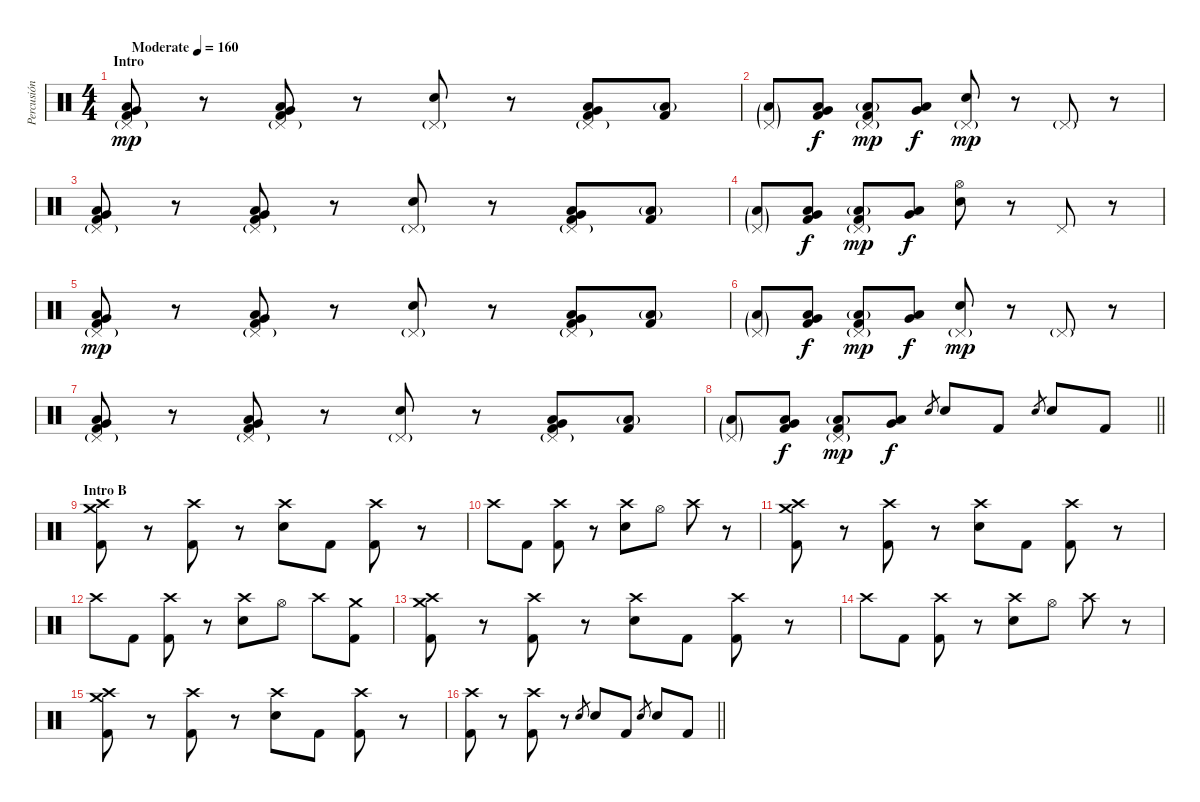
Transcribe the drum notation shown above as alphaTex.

\track ("Percusión" "Percusión") {instrument percussion}
\staff {score}
\articulation defaults
\ts (4 4)
\section ("" "Intro")
\tempo (160 "Moderate")
\clef neutral
\ks c
("Pedal Hi-Hat (hit)"{g} "Very Low Tom (hit)" "Low Tom (hit)" "Kick (hit) 2").8{dy mp} r.8 ("Pedal Hi-Hat (hit)"{g} "Very Low Tom (hit)" "Low Tom (hit)" "Kick (hit) 2").8 r.8 ("Pedal Hi-Hat (hit)"{g} "Electric Snare (hit)").8 r.8 ("Pedal Hi-Hat (hit)"{g} "Very Low Tom (hit)" "Low Tom (hit)" "Kick (hit) 2").8 ("Low Floor Tom (hit)"{g} "Kick (hit) 2").8 |
("Pedal Hi-Hat (hit)"{g} "Low Floor Tom (hit)"{g}).8 ("Very Low Tom (hit)" "Low Tom (hit)" "Kick (hit) 2").8{dy f} ("Pedal Hi-Hat (hit)"{g} "Low Floor Tom (hit)"{g} "Kick (hit) 2").8{dy mp} ("Very Low Tom (hit)" "Low Tom (hit)").8{dy f} ("Pedal Hi-Hat (hit)"{g} "Electric Snare (hit)").8{dy mp} r.8 "Pedal Hi-Hat (hit)"{g}.8 r.8 |
("Pedal Hi-Hat (hit)"{g} "Very Low Tom (hit)" "Low Tom (hit)" "Kick (hit) 2").8 r.8 ("Pedal Hi-Hat (hit)"{g} "Very Low Tom (hit)" "Low Tom (hit)" "Kick (hit) 2").8 r.8 ("Pedal Hi-Hat (hit)"{g} "Electric Snare (hit)").8 r.8 ("Pedal Hi-Hat (hit)"{g} "Very Low Tom (hit)" "Low Tom (hit)" "Kick (hit) 2").8 ("Low Floor Tom (hit)"{g} "Kick (hit) 2").8 |
("Pedal Hi-Hat (hit)"{g} "Low Floor Tom (hit)"{g}).8 ("Very Low Tom (hit)" "Low Tom (hit)" "Kick (hit) 2").8{dy f} ("Pedal Hi-Hat (hit)"{g} "Low Floor Tom (hit)"{g} "Kick (hit) 2").8{dy mp} ("Very Low Tom (hit)" "Low Tom (hit)").8{dy f} ("Hi-Hat (open)" "Electric Snare (hit)").8 r.8 "Pedal Hi-Hat (hit)".8 r.8 |
("Pedal Hi-Hat (hit)"{g} "Very Low Tom (hit)" "Low Tom (hit)" "Kick (hit) 2").8{dy mp} r.8 ("Pedal Hi-Hat (hit)"{g} "Very Low Tom (hit)" "Low Tom (hit)" "Kick (hit) 2").8 r.8 ("Pedal Hi-Hat (hit)"{g} "Electric Snare (hit)").8 r.8 ("Pedal Hi-Hat (hit)"{g} "Very Low Tom (hit)" "Low Tom (hit)" "Kick (hit) 2").8 ("Low Floor Tom (hit)"{g} "Kick (hit) 2").8 |
("Pedal Hi-Hat (hit)"{g} "Low Floor Tom (hit)"{g}).8 ("Very Low Tom (hit)" "Low Tom (hit)" "Kick (hit) 2").8{dy f} ("Pedal Hi-Hat (hit)"{g} "Low Floor Tom (hit)"{g} "Kick (hit) 2").8{dy mp} ("Very Low Tom (hit)" "Low Tom (hit)").8{dy f} ("Pedal Hi-Hat (hit)"{g} "Electric Snare (hit)").8{dy mp} r.8 "Pedal Hi-Hat (hit)"{g}.8 r.8 |
("Pedal Hi-Hat (hit)"{g} "Very Low Tom (hit)" "Low Tom (hit)" "Kick (hit) 2").8 r.8 ("Pedal Hi-Hat (hit)"{g} "Very Low Tom (hit)" "Low Tom (hit)" "Kick (hit) 2").8 r.8 ("Pedal Hi-Hat (hit)"{g} "Electric Snare (hit)").8 r.8 ("Pedal Hi-Hat (hit)"{g} "Very Low Tom (hit)" "Low Tom (hit)" "Kick (hit) 2").8 ("Low Floor Tom (hit)"{g} "Kick (hit) 2").8 |
\barLineRight lightlight
("Pedal Hi-Hat (hit)"{g} "Low Floor Tom (hit)"{g}).8 ("Very Low Tom (hit)" "Low Tom (hit)" "Kick (hit) 2").8{dy f} ("Pedal Hi-Hat (hit)"{g} "Low Floor Tom (hit)"{g} "Kick (hit) 2").8{dy mp} ("Very Low Tom (hit)" "Low Tom (hit)").8{dy f} "Electric Snare (hit)".8{gr} "Electric Snare (hit)".8 "Kick (hit) 2".8 "Electric Snare (hit)".8{gr} "Electric Snare (hit)".8 "Kick (hit) 2".8 |
\section ("" "Intro B")
("Crash medium (hit)" "Crash high (hit)" "Kick (hit) 2").8 r.8 ("Crash high (hit)" "Kick (hit) 2").8 r.8 ("Crash high (hit)" "Electric Snare (hit)").8 "Kick (hit) 2".8 ("Crash high (hit)" "Kick (hit) 2").8 r.8 |
"Crash high (hit)".8 "Kick (hit) 2".8 ("Crash high (hit)" "Kick (hit) 2").8 r.8 ("Crash high (hit)" "Electric Snare (hit)").8 "Hi-Hat (open)".8 "Crash high (hit)".8 r.8 |
("Crash medium (hit)" "Crash high (hit)" "Kick (hit) 2").8 r.8 ("Crash high (hit)" "Kick (hit) 2").8 r.8 ("Crash high (hit)" "Electric Snare (hit)").8 "Kick (hit) 2".8 ("Crash high (hit)" "Kick (hit) 2").8 r.8 |
"Crash high (hit)".8 "Kick (hit) 2".8 ("Crash high (hit)" "Kick (hit) 2").8 r.8 ("Crash high (hit)" "Electric Snare (hit)").8 "Hi-Hat (open)".8 "Crash high (hit)".8 ("Crash medium (hit)" "Kick (hit) 2").8 |
("Crash medium (hit)" "Crash high (hit)" "Kick (hit) 2").8 r.8 ("Crash high (hit)" "Kick (hit) 2").8 r.8 ("Crash high (hit)" "Electric Snare (hit)").8 "Kick (hit) 2".8 ("Crash high (hit)" "Kick (hit) 2").8 r.8 |
"Crash high (hit)".8 "Kick (hit) 2".8 ("Crash high (hit)" "Kick (hit) 2").8 r.8 ("Crash high (hit)" "Electric Snare (hit)").8 "Hi-Hat (open)".8 "Crash high (hit)".8 r.8 |
("Crash medium (hit)" "Crash high (hit)" "Kick (hit) 2").8 r.8 ("Crash high (hit)" "Kick (hit) 2").8 r.8 ("Crash high (hit)" "Electric Snare (hit)").8 "Kick (hit) 2".8 ("Crash high (hit)" "Kick (hit) 2").8 r.8 |
\barLineRight lightlight
("Crash high (hit)" "Kick (hit) 2").8 r.8 ("Crash high (hit)" "Kick (hit) 2").8 r.8 "Electric Snare (hit)".8{gr} "Electric Snare (hit)".8 "Kick (hit) 2".8 "Electric Snare (hit)".8{gr} "Electric Snare (hit)".8 "Kick (hit) 2".8
